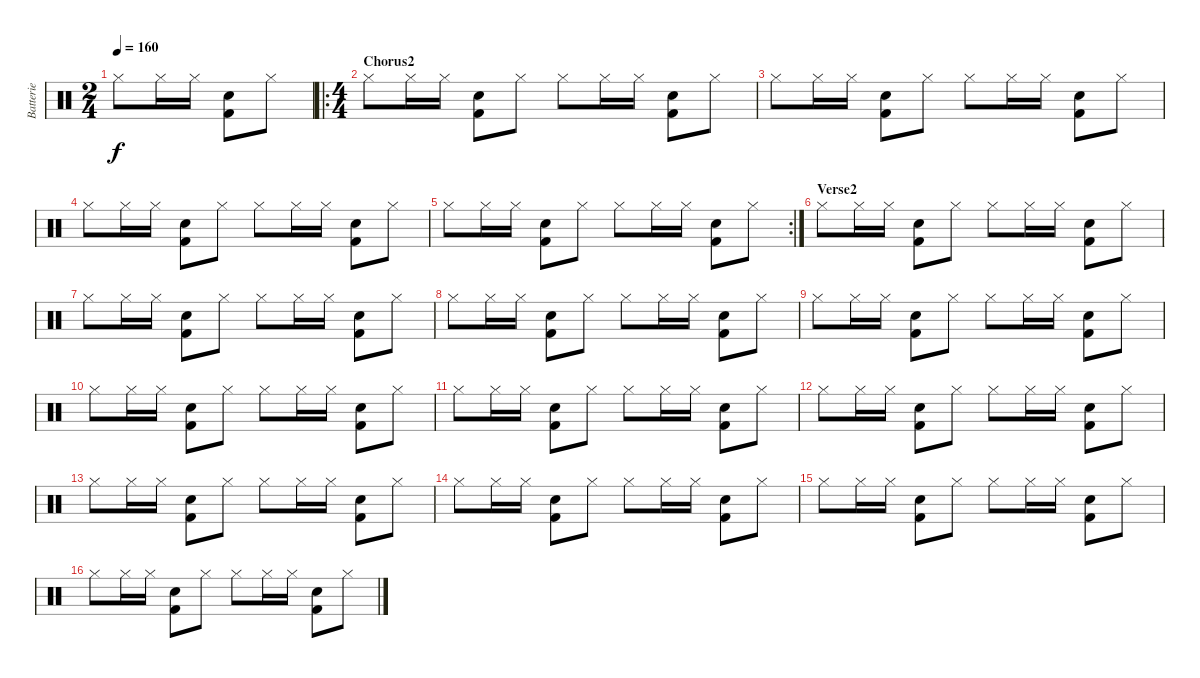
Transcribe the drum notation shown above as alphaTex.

\track ("Batterie" "Batterie") {instrument percussion}
\staff {score}
\articulation defaults
\ts (2 4)
\tempo 160
\clef neutral
\ks c "Hi-Hat (closed)".8{dy f} "Hi-Hat (closed)".16 "Hi-Hat (closed)".16
("Snare (hit) 2" "Kick (hit) 2").8 "Hi-Hat (closed)".8 |
\ro
\ts (4 4)
\section ("" "Chorus2")
"Hi-Hat (closed)".8 "Hi-Hat (closed)".16 "Hi-Hat (closed)".16 ("Snare (hit) 2" "Kick (hit) 2").8 "Hi-Hat (closed)".8 "Hi-Hat (closed)".8 "Hi-Hat (closed)".16 "Hi-Hat (closed)".16 ("Snare (hit) 2" "Kick (hit) 2").8 "Hi-Hat (closed)".8 |
"Hi-Hat (closed)".8 "Hi-Hat (closed)".16 "Hi-Hat (closed)".16 ("Snare (hit) 2" "Kick (hit) 2").8 "Hi-Hat (closed)".8 "Hi-Hat (closed)".8 "Hi-Hat (closed)".16 "Hi-Hat (closed)".16 ("Snare (hit) 2" "Kick (hit) 2").8 "Hi-Hat (closed)".8 |
"Hi-Hat (closed)".8 "Hi-Hat (closed)".16 "Hi-Hat (closed)".16 ("Snare (hit) 2" "Kick (hit) 2").8 "Hi-Hat (closed)".8 "Hi-Hat (closed)".8 "Hi-Hat (closed)".16 "Hi-Hat (closed)".16 ("Snare (hit) 2" "Kick (hit) 2").8 "Hi-Hat (closed)".8 |
\rc 2 "Hi-Hat (closed)".8 "Hi-Hat (closed)".16 "Hi-Hat (closed)".16
("Snare (hit) 2" "Kick (hit) 2").8 "Hi-Hat (closed)".8 "Hi-Hat (closed)".8 "Hi-Hat (closed)".16 "Hi-Hat (closed)".16 ("Snare (hit) 2" "Kick (hit) 2").8 "Hi-Hat (closed)".8 |
\section ("" "Verse2")
"Hi-Hat (closed)".8 "Hi-Hat (closed)".16 "Hi-Hat (closed)".16 ("Snare (hit) 2" "Kick (hit) 2").8 "Hi-Hat (closed)".8 "Hi-Hat (closed)".8 "Hi-Hat (closed)".16 "Hi-Hat (closed)".16 ("Snare (hit) 2" "Kick (hit) 2").8 "Hi-Hat (closed)".8 |
"Hi-Hat (closed)".8 "Hi-Hat (closed)".16 "Hi-Hat (closed)".16 ("Snare (hit) 2" "Kick (hit) 2").8 "Hi-Hat (closed)".8 "Hi-Hat (closed)".8 "Hi-Hat (closed)".16 "Hi-Hat (closed)".16 ("Snare (hit) 2" "Kick (hit) 2").8 "Hi-Hat (closed)".8 |
"Hi-Hat (closed)".8 "Hi-Hat (closed)".16 "Hi-Hat (closed)".16 ("Snare (hit) 2" "Kick (hit) 2").8 "Hi-Hat (closed)".8 "Hi-Hat (closed)".8 "Hi-Hat (closed)".16 "Hi-Hat (closed)".16 ("Snare (hit) 2" "Kick (hit) 2").8 "Hi-Hat (closed)".8 |
"Hi-Hat (closed)".8 "Hi-Hat (closed)".16 "Hi-Hat (closed)".16 ("Snare (hit) 2" "Kick (hit) 2").8 "Hi-Hat (closed)".8 "Hi-Hat (closed)".8 "Hi-Hat (closed)".16 "Hi-Hat (closed)".16 ("Snare (hit) 2" "Kick (hit) 2").8 "Hi-Hat (closed)".8 |
"Hi-Hat (closed)".8 "Hi-Hat (closed)".16 "Hi-Hat (closed)".16 ("Snare (hit) 2" "Kick (hit) 2").8 "Hi-Hat (closed)".8 "Hi-Hat (closed)".8 "Hi-Hat (closed)".16 "Hi-Hat (closed)".16 ("Snare (hit) 2" "Kick (hit) 2").8 "Hi-Hat (closed)".8 |
"Hi-Hat (closed)".8 "Hi-Hat (closed)".16 "Hi-Hat (closed)".16 ("Snare (hit) 2" "Kick (hit) 2").8 "Hi-Hat (closed)".8 "Hi-Hat (closed)".8 "Hi-Hat (closed)".16 "Hi-Hat (closed)".16 ("Snare (hit) 2" "Kick (hit) 2").8 "Hi-Hat (closed)".8 |
"Hi-Hat (closed)".8 "Hi-Hat (closed)".16 "Hi-Hat (closed)".16 ("Snare (hit) 2" "Kick (hit) 2").8 "Hi-Hat (closed)".8 "Hi-Hat (closed)".8 "Hi-Hat (closed)".16 "Hi-Hat (closed)".16 ("Snare (hit) 2" "Kick (hit) 2").8 "Hi-Hat (closed)".8 |
"Hi-Hat (closed)".8 "Hi-Hat (closed)".16 "Hi-Hat (closed)".16 ("Snare (hit) 2" "Kick (hit) 2").8 "Hi-Hat (closed)".8 "Hi-Hat (closed)".8 "Hi-Hat (closed)".16 "Hi-Hat (closed)".16 ("Snare (hit) 2" "Kick (hit) 2").8 "Hi-Hat (closed)".8 |
"Hi-Hat (closed)".8 "Hi-Hat (closed)".16 "Hi-Hat (closed)".16 ("Snare (hit) 2" "Kick (hit) 2").8 "Hi-Hat (closed)".8 "Hi-Hat (closed)".8 "Hi-Hat (closed)".16 "Hi-Hat (closed)".16 ("Snare (hit) 2" "Kick (hit) 2").8 "Hi-Hat (closed)".8 |
"Hi-Hat (closed)".8 "Hi-Hat (closed)".16 "Hi-Hat (closed)".16 ("Snare (hit) 2" "Kick (hit) 2").8 "Hi-Hat (closed)".8 "Hi-Hat (closed)".8 "Hi-Hat (closed)".16 "Hi-Hat (closed)".16 ("Snare (hit) 2" "Kick (hit) 2").8 "Hi-Hat (closed)".8 |
"Hi-Hat (closed)".8 "Hi-Hat (closed)".16 "Hi-Hat (closed)".16 ("Snare (hit) 2" "Kick (hit) 2").8 "Hi-Hat (closed)".8 "Hi-Hat (closed)".8 "Hi-Hat (closed)".16 "Hi-Hat (closed)".16 ("Snare (hit) 2" "Kick (hit) 2").8 "Hi-Hat (closed)".8
